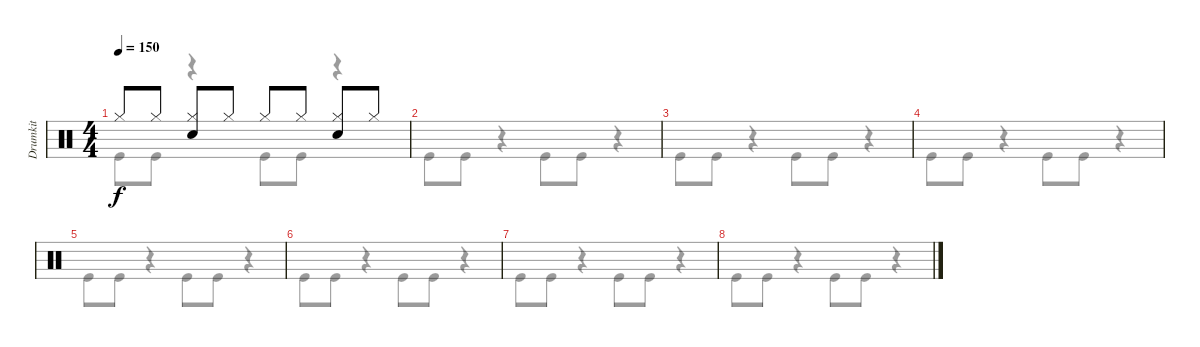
\track ("Drumkit" "Drumkit") {instrument percussion}
\staff {score}
\articulation defaults
\voice
\ts (4 4)
\tempo 150
\clef neutral
\ks c "Hi-Hat (closed)".8{dy f} "Hi-Hat (closed)".8
("Hi-Hat (closed)" "Snare (hit) 2").8 "Hi-Hat (closed)".8 "Hi-Hat (closed)".8 "Hi-Hat (closed)".8 ("Hi-Hat (closed)" "Snare (hit) 2").8 "Hi-Hat (closed)".8 |
|
|
|
|
|
|
|
|
|
|
|
|
|
|
\voice
\clef neutral
\ottava regular
\simile none
\ks c "Kick (hit)".8{dy f} "Kick (hit)".8
r.4 "Kick (hit)".8 "Kick (hit)".8 r.4 |
"Kick (hit)".8 "Kick (hit)".8 r.4 "Kick (hit)".8 "Kick (hit)".8 r.4 |
"Kick (hit)".8 "Kick (hit)".8 r.4 "Kick (hit)".8 "Kick (hit)".8 r.4 |
"Kick (hit)".8 "Kick (hit)".8 r.4 "Kick (hit)".8 "Kick (hit)".8 r.4 |
"Kick (hit)".8 "Kick (hit)".8 r.4 "Kick (hit)".8 "Kick (hit)".8 r.4 |
"Kick (hit)".8 "Kick (hit)".8 r.4 "Kick (hit)".8 "Kick (hit)".8 r.4 |
"Kick (hit)".8 "Kick (hit)".8 r.4 "Kick (hit)".8 "Kick (hit)".8 r.4 |
"Kick (hit)".8 "Kick (hit)".8 r.4 "Kick (hit)".8 "Kick (hit)".8 r.4 |
|
|
|
|
|
|
|
